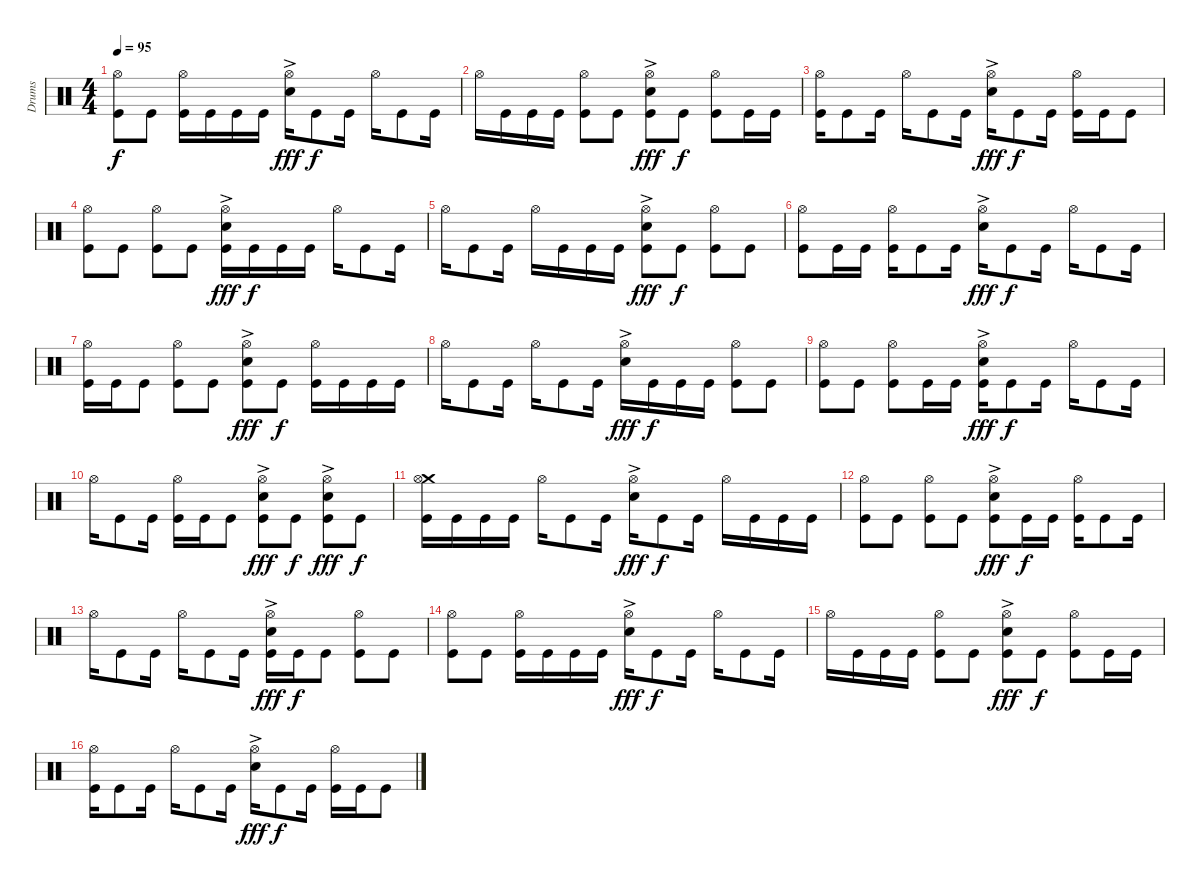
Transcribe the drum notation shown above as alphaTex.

\track ("Drums" "Drums") {instrument percussion}
\staff {score}
\articulation defaults
\ts (4 4)
\tempo 95
\clef neutral
\ks c
("Hi-Hat (open)" "Kick (hit)").8{dy f} "Kick (hit)".8 ("Hi-Hat (open)" "Kick (hit)").16 "Kick (hit)".16 "Kick (hit)".16 "Kick (hit)".16 ("Hi-Hat (open)" "Snare (hit) 2"{ac}).16{dy fff} "Kick (hit)".8{dy f} "Kick (hit)".16 "Hi-Hat (open)".16 "Kick (hit)".8 "Kick (hit)".16 |
"Hi-Hat (open)".16 "Kick (hit)".16 "Kick (hit)".16 "Kick (hit)".16 ("Hi-Hat (open)" "Kick (hit)").8 "Kick (hit)".8 ("Hi-Hat (open)" "Snare (hit) 2"{ac} "Kick (hit)").8{dy fff} "Kick (hit)".8{dy f} ("Hi-Hat (open)" "Kick (hit)").8 "Kick (hit)".16 "Kick (hit)".16 |
("Hi-Hat (open)" "Kick (hit)").16 "Kick (hit)".8 "Kick (hit)".16 "Hi-Hat (open)".16 "Kick (hit)".8 "Kick (hit)".16 ("Hi-Hat (open)" "Snare (hit) 2"{ac}).16{dy fff} "Kick (hit)".8{dy f} "Kick (hit)".16 ("Hi-Hat (open)" "Kick (hit)").16 "Kick (hit)".16 "Kick (hit)".8 |
("Hi-Hat (open)" "Kick (hit)").8 "Kick (hit)".8 ("Hi-Hat (open)" "Kick (hit)").8 "Kick (hit)".8 ("Hi-Hat (open)" "Snare (hit) 2"{ac} "Kick (hit)").16{dy fff} "Kick (hit)".16{dy f} "Kick (hit)".16 "Kick (hit)".16 "Hi-Hat (open)".16 "Kick (hit)".8 "Kick (hit)".16 |
"Hi-Hat (open)".16 "Kick (hit)".8 "Kick (hit)".16 "Hi-Hat (open)".16 "Kick (hit)".16 "Kick (hit)".16 "Kick (hit)".16 ("Hi-Hat (open)" "Snare (hit) 2"{ac} "Kick (hit)").8{dy fff} "Kick (hit)".8{dy f} ("Hi-Hat (open)" "Kick (hit)").8 "Kick (hit)".8 |
("Hi-Hat (open)" "Kick (hit)").8 "Kick (hit)".16 "Kick (hit)".16 ("Hi-Hat (open)" "Kick (hit)").16 "Kick (hit)".8 "Kick (hit)".16 ("Hi-Hat (open)" "Snare (hit) 2"{ac}).16{dy fff} "Kick (hit)".8{dy f} "Kick (hit)".16 "Hi-Hat (open)".16 "Kick (hit)".8 "Kick (hit)".16 |
("Hi-Hat (open)" "Kick (hit)").16 "Kick (hit)".16 "Kick (hit)".8 ("Hi-Hat (open)" "Kick (hit)").8 "Kick (hit)".8 ("Hi-Hat (open)" "Snare (hit) 2"{ac} "Kick (hit)").8{dy fff} "Kick (hit)".8{dy f} ("Hi-Hat (open)" "Kick (hit)").16 "Kick (hit)".16 "Kick (hit)".16 "Kick (hit)".16 |
"Hi-Hat (open)".16 "Kick (hit)".8 "Kick (hit)".16 "Hi-Hat (open)".16 "Kick (hit)".8 "Kick (hit)".16 ("Hi-Hat (open)" "Snare (hit) 2"{ac}).16{dy fff} "Kick (hit)".16{dy f} "Kick (hit)".16 "Kick (hit)".16 ("Hi-Hat (open)" "Kick (hit)").8 "Kick (hit)".8 |
("Hi-Hat (open)" "Kick (hit)").8 "Kick (hit)".8 ("Hi-Hat (open)" "Kick (hit)").8 "Kick (hit)".16 "Kick (hit)".16 ("Hi-Hat (open)" "Snare (hit) 2"{ac} "Kick (hit)").16{dy fff} "Kick (hit)".8{dy f} "Kick (hit)".16 "Hi-Hat (open)".16 "Kick (hit)".8 "Kick (hit)".16 |
"Hi-Hat (open)".16 "Kick (hit)".8 "Kick (hit)".16 ("Hi-Hat (open)" "Kick (hit)").16 "Kick (hit)".16 "Kick (hit)".8 ("Hi-Hat (open)" "Snare (hit) 2"{ac} "Kick (hit)").8{dy fff} "Kick (hit)".8{dy f} ("Hi-Hat (open)" "Snare (hit) 2"{ac} "Kick (hit)").8{dy fff} "Kick (hit)".8{dy f} |
("Crash medium (hit)" "Hi-Hat (open)" "Kick (hit)").16 "Kick (hit)".16 "Kick (hit)".16 "Kick (hit)".16 "Hi-Hat (open)".16 "Kick (hit)".8 "Kick (hit)".16 ("Hi-Hat (open)" "Snare (hit) 2"{ac}).16{dy fff} "Kick (hit)".8{dy f} "Kick (hit)".16 "Hi-Hat (open)".16 "Kick (hit)".16 "Kick (hit)".16 "Kick (hit)".16 |
("Hi-Hat (open)" "Kick (hit)").8 "Kick (hit)".8 ("Hi-Hat (open)" "Kick (hit)").8 "Kick (hit)".8 ("Hi-Hat (open)" "Snare (hit) 2"{ac} "Kick (hit)").8{dy fff} "Kick (hit)".16{dy f} "Kick (hit)".16 ("Hi-Hat (open)" "Kick (hit)").16 "Kick (hit)".8 "Kick (hit)".16 |
"Hi-Hat (open)".16 "Kick (hit)".8 "Kick (hit)".16 "Hi-Hat (open)".16 "Kick (hit)".8 "Kick (hit)".16 ("Hi-Hat (open)" "Snare (hit) 2"{ac} "Kick (hit)").16{dy fff} "Kick (hit)".16{dy f} "Kick (hit)".8 ("Hi-Hat (open)" "Kick (hit)").8 "Kick (hit)".8 |
("Hi-Hat (open)" "Kick (hit)").8 "Kick (hit)".8 ("Hi-Hat (open)" "Kick (hit)").16 "Kick (hit)".16 "Kick (hit)".16 "Kick (hit)".16 ("Hi-Hat (open)" "Snare (hit) 2"{ac}).16{dy fff} "Kick (hit)".8{dy f} "Kick (hit)".16 "Hi-Hat (open)".16 "Kick (hit)".8 "Kick (hit)".16 |
"Hi-Hat (open)".16 "Kick (hit)".16 "Kick (hit)".16 "Kick (hit)".16 ("Hi-Hat (open)" "Kick (hit)").8 "Kick (hit)".8 ("Hi-Hat (open)" "Snare (hit) 2"{ac} "Kick (hit)").8{dy fff} "Kick (hit)".8{dy f} ("Hi-Hat (open)" "Kick (hit)").8 "Kick (hit)".16 "Kick (hit)".16 |
("Hi-Hat (open)" "Kick (hit)").16 "Kick (hit)".8 "Kick (hit)".16 "Hi-Hat (open)".16 "Kick (hit)".8 "Kick (hit)".16 ("Hi-Hat (open)" "Snare (hit) 2"{ac}).16{dy fff} "Kick (hit)".8{dy f} "Kick (hit)".16 ("Hi-Hat (open)" "Kick (hit)").16 "Kick (hit)".16 "Kick (hit)".8
